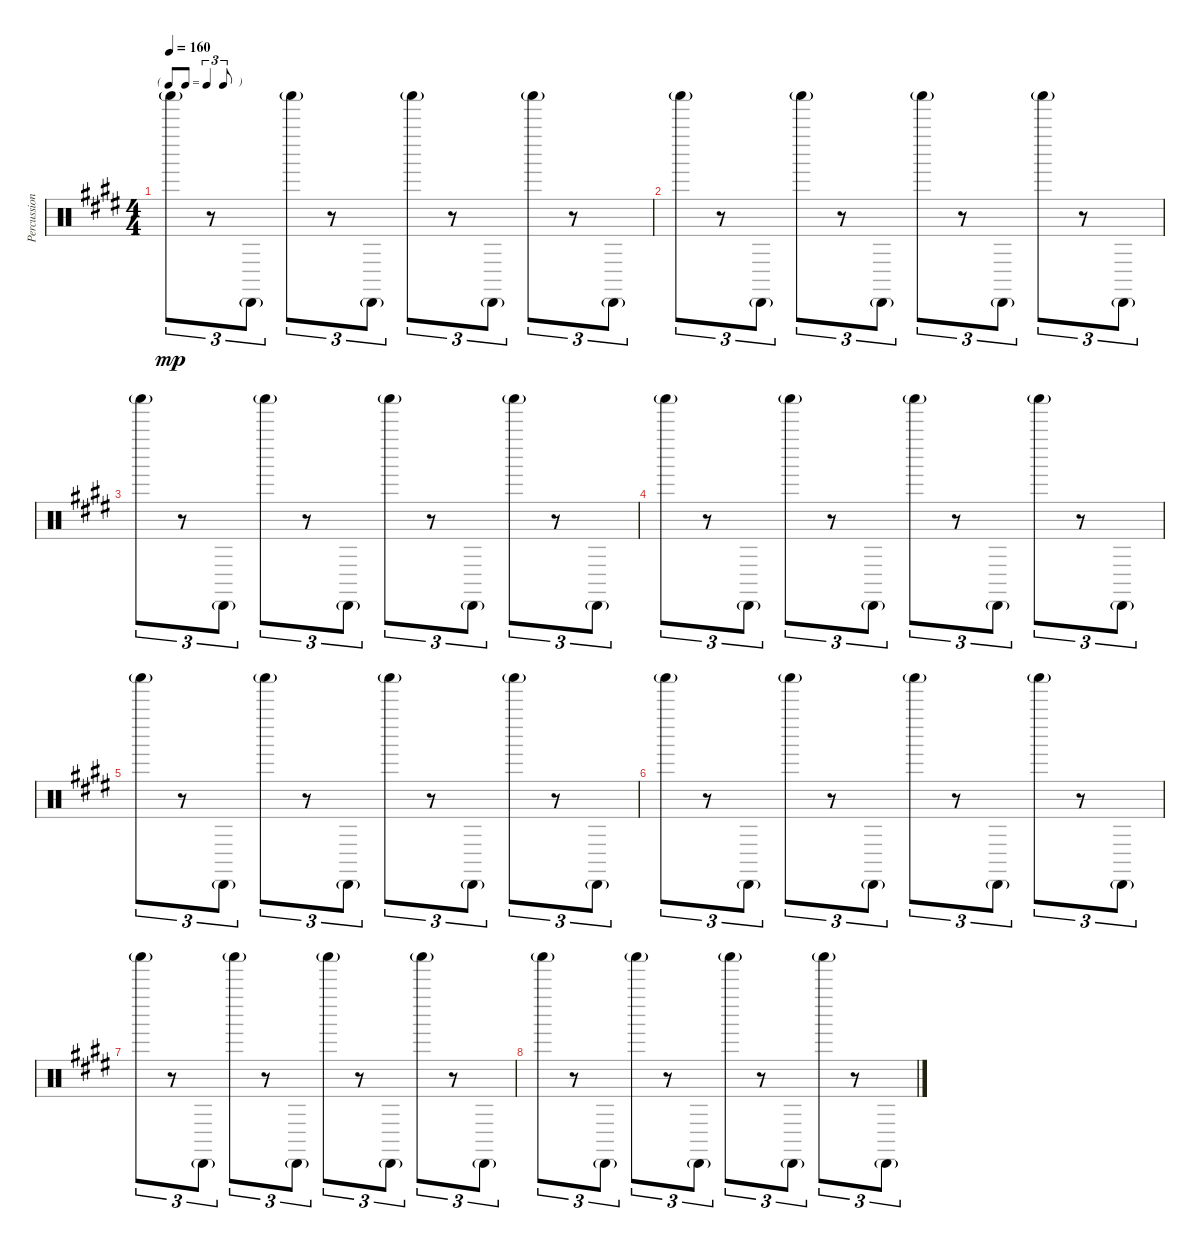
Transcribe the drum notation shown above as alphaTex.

\track ("Percussion" "Percussion") {instrument percussion}
\staff {score}
\articulation defaults
\ts (4 4)
\tf triplet8th
\tempo 160
\clef neutral
\ks e "Shaker (hit)"{g}.8{tu (3 2) dy mp}
r.8{tu (3 2)} "Cabasa (hit)"{g}.8{tu (3 2)} "Shaker (hit)"{g}.8{tu (3 2)} r.8{tu (3 2)} "Cabasa (hit)"{g}.8{tu (3 2)} "Shaker (hit)"{g}.8{tu (3 2)} r.8{tu (3 2)} "Cabasa (hit)"{g}.8{tu (3 2)} "Shaker (hit)"{g}.8{tu (3 2)} r.8{tu (3 2)} "Cabasa (hit)"{g}.8{tu (3 2)} |
"Shaker (hit)"{g}.8{tu (3 2)} r.8{tu (3 2)} "Cabasa (hit)"{g}.8{tu (3 2)} "Shaker (hit)"{g}.8{tu (3 2)} r.8{tu (3 2)} "Cabasa (hit)"{g}.8{tu (3 2)} "Shaker (hit)"{g}.8{tu (3 2)} r.8{tu (3 2)} "Cabasa (hit)"{g}.8{tu (3 2)} "Shaker (hit)"{g}.8{tu (3 2)} r.8{tu (3 2)} "Cabasa (hit)"{g}.8{tu (3 2)} |
"Shaker (hit)"{g}.8{tu (3 2)} r.8{tu (3 2)} "Cabasa (hit)"{g}.8{tu (3 2)} "Shaker (hit)"{g}.8{tu (3 2)} r.8{tu (3 2)} "Cabasa (hit)"{g}.8{tu (3 2)} "Shaker (hit)"{g}.8{tu (3 2)} r.8{tu (3 2)} "Cabasa (hit)"{g}.8{tu (3 2)} "Shaker (hit)"{g}.8{tu (3 2)} r.8{tu (3 2)} "Cabasa (hit)"{g}.8{tu (3 2)} |
"Shaker (hit)"{g}.8{tu (3 2)} r.8{tu (3 2)} "Cabasa (hit)"{g}.8{tu (3 2)} "Shaker (hit)"{g}.8{tu (3 2)} r.8{tu (3 2)} "Cabasa (hit)"{g}.8{tu (3 2)} "Shaker (hit)"{g}.8{tu (3 2)} r.8{tu (3 2)} "Cabasa (hit)"{g}.8{tu (3 2)} "Shaker (hit)"{g}.8{tu (3 2)} r.8{tu (3 2)} "Cabasa (hit)"{g}.8{tu (3 2)} |
"Shaker (hit)"{g}.8{tu (3 2)} r.8{tu (3 2)} "Cabasa (hit)"{g}.8{tu (3 2)} "Shaker (hit)"{g}.8{tu (3 2)} r.8{tu (3 2)} "Cabasa (hit)"{g}.8{tu (3 2)} "Shaker (hit)"{g}.8{tu (3 2)} r.8{tu (3 2)} "Cabasa (hit)"{g}.8{tu (3 2)} "Shaker (hit)"{g}.8{tu (3 2)} r.8{tu (3 2)} "Cabasa (hit)"{g}.8{tu (3 2)} |
"Shaker (hit)"{g}.8{tu (3 2)} r.8{tu (3 2)} "Cabasa (hit)"{g}.8{tu (3 2)} "Shaker (hit)"{g}.8{tu (3 2)} r.8{tu (3 2)} "Cabasa (hit)"{g}.8{tu (3 2)} "Shaker (hit)"{g}.8{tu (3 2)} r.8{tu (3 2)} "Cabasa (hit)"{g}.8{tu (3 2)} "Shaker (hit)"{g}.8{tu (3 2)} r.8{tu (3 2)} "Cabasa (hit)"{g}.8{tu (3 2)} |
"Shaker (hit)"{g}.8{tu (3 2)} r.8{tu (3 2)} "Cabasa (hit)"{g}.8{tu (3 2)} "Shaker (hit)"{g}.8{tu (3 2)} r.8{tu (3 2)} "Cabasa (hit)"{g}.8{tu (3 2)} "Shaker (hit)"{g}.8{tu (3 2)} r.8{tu (3 2)} "Cabasa (hit)"{g}.8{tu (3 2)} "Shaker (hit)"{g}.8{tu (3 2)} r.8{tu (3 2)} "Cabasa (hit)"{g}.8{tu (3 2)} |
"Shaker (hit)"{g}.8{tu (3 2)} r.8{tu (3 2)} "Cabasa (hit)"{g}.8{tu (3 2)} "Shaker (hit)"{g}.8{tu (3 2)} r.8{tu (3 2)} "Cabasa (hit)"{g}.8{tu (3 2)} "Shaker (hit)"{g}.8{tu (3 2)} r.8{tu (3 2)} "Cabasa (hit)"{g}.8{tu (3 2)} "Shaker (hit)"{g}.8{tu (3 2)} r.8{tu (3 2)} "Cabasa (hit)"{g}.8{tu (3 2)}
